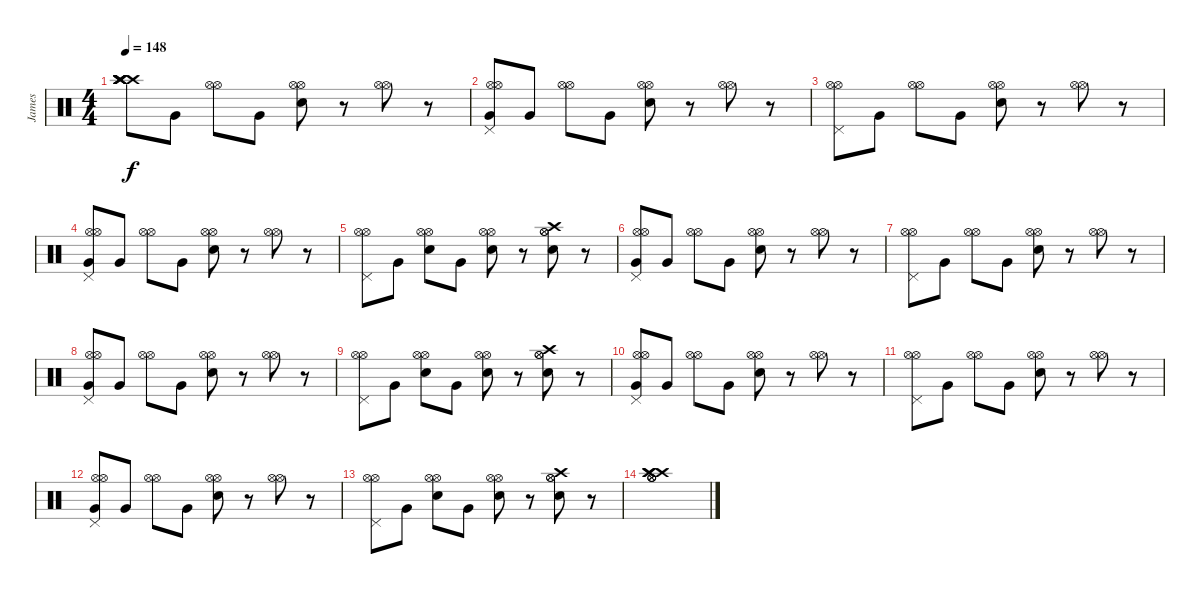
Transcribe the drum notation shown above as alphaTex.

\track ("James" "James") {instrument percussion}
\staff {score}
\articulation defaults
\ts (4 4)
\tempo 148
\clef neutral
\ks c
("Crash high (hit)" "Crash high (hit)" "Crash high (hit)" "Crash high (hit)" "Crash high (hit)" "Crash high (hit)").8{dy f} "Very Low Tom (hit)".8 ("Hi-Hat (open)" "Hi-Hat (open)").8 "Very Low Tom (hit)".8 ("Hi-Hat (open)" "Electric Snare (hit)" "Hi-Hat (open)").8 r.8 ("Hi-Hat (open)" "Hi-Hat (open)").8 r.8 |
("Hi-Hat (open)" "Pedal Hi-Hat (hit)" "Very Low Tom (hit)" "Hi-Hat (open)").8 "Very Low Tom (hit)".8 ("Hi-Hat (open)" "Hi-Hat (open)").8 "Very Low Tom (hit)".8 ("Hi-Hat (open)" "Electric Snare (hit)" "Hi-Hat (open)").8 r.8 ("Hi-Hat (open)" "Hi-Hat (open)").8 r.8 |
("Hi-Hat (open)" "Pedal Hi-Hat (hit)" "Hi-Hat (open)").8 "Very Low Tom (hit)".8 ("Hi-Hat (open)" "Hi-Hat (open)").8 "Very Low Tom (hit)".8 ("Hi-Hat (open)" "Electric Snare (hit)" "Hi-Hat (open)").8 r.8 ("Hi-Hat (open)" "Hi-Hat (open)").8 r.8 |
("Hi-Hat (open)" "Pedal Hi-Hat (hit)" "Very Low Tom (hit)" "Hi-Hat (open)").8 "Very Low Tom (hit)".8 ("Hi-Hat (open)" "Hi-Hat (open)").8 "Very Low Tom (hit)".8 ("Hi-Hat (open)" "Electric Snare (hit)" "Hi-Hat (open)").8 r.8 ("Hi-Hat (open)" "Hi-Hat (open)").8 r.8 |
("Hi-Hat (open)" "Pedal Hi-Hat (hit)" "Hi-Hat (open)").8 "Very Low Tom (hit)".8 ("Hi-Hat (open)" "Electric Snare (hit)" "Hi-Hat (open)").8 "Very Low Tom (hit)".8 ("Hi-Hat (open)" "Electric Snare (hit)" "Hi-Hat (open)").8 r.8 ("Hi-Hat (open)" "Crash high (hit)" "Electric Snare (hit)" "Hi-Hat (open)").8 r.8 |
("Hi-Hat (open)" "Pedal Hi-Hat (hit)" "Very Low Tom (hit)" "Hi-Hat (open)").8 "Very Low Tom (hit)".8 ("Hi-Hat (open)" "Hi-Hat (open)").8 "Very Low Tom (hit)".8 ("Hi-Hat (open)" "Electric Snare (hit)" "Hi-Hat (open)").8 r.8 ("Hi-Hat (open)" "Hi-Hat (open)").8 r.8 |
("Hi-Hat (open)" "Pedal Hi-Hat (hit)" "Hi-Hat (open)").8 "Very Low Tom (hit)".8 ("Hi-Hat (open)" "Hi-Hat (open)").8 "Very Low Tom (hit)".8 ("Hi-Hat (open)" "Electric Snare (hit)" "Hi-Hat (open)").8 r.8 ("Hi-Hat (open)" "Hi-Hat (open)").8 r.8 |
("Hi-Hat (open)" "Pedal Hi-Hat (hit)" "Very Low Tom (hit)" "Hi-Hat (open)").8 "Very Low Tom (hit)".8 ("Hi-Hat (open)" "Hi-Hat (open)").8 "Very Low Tom (hit)".8 ("Hi-Hat (open)" "Electric Snare (hit)" "Hi-Hat (open)").8 r.8 ("Hi-Hat (open)" "Hi-Hat (open)").8 r.8 |
("Hi-Hat (open)" "Pedal Hi-Hat (hit)" "Hi-Hat (open)").8 "Very Low Tom (hit)".8 ("Hi-Hat (open)" "Electric Snare (hit)" "Hi-Hat (open)").8 "Very Low Tom (hit)".8 ("Hi-Hat (open)" "Electric Snare (hit)" "Hi-Hat (open)").8 r.8 ("Hi-Hat (open)" "Crash high (hit)" "Electric Snare (hit)" "Hi-Hat (open)").8 r.8 |
("Hi-Hat (open)" "Pedal Hi-Hat (hit)" "Very Low Tom (hit)" "Hi-Hat (open)").8 "Very Low Tom (hit)".8 ("Hi-Hat (open)" "Hi-Hat (open)").8 "Very Low Tom (hit)".8 ("Hi-Hat (open)" "Electric Snare (hit)" "Hi-Hat (open)").8 r.8 ("Hi-Hat (open)" "Hi-Hat (open)").8 r.8 |
("Hi-Hat (open)" "Pedal Hi-Hat (hit)" "Hi-Hat (open)").8 "Very Low Tom (hit)".8 ("Hi-Hat (open)" "Hi-Hat (open)").8 "Very Low Tom (hit)".8 ("Hi-Hat (open)" "Electric Snare (hit)" "Hi-Hat (open)").8 r.8 ("Hi-Hat (open)" "Hi-Hat (open)").8 r.8 |
("Hi-Hat (open)" "Pedal Hi-Hat (hit)" "Very Low Tom (hit)" "Hi-Hat (open)").8 "Very Low Tom (hit)".8 ("Hi-Hat (open)" "Hi-Hat (open)").8 "Very Low Tom (hit)".8 ("Hi-Hat (open)" "Electric Snare (hit)" "Hi-Hat (open)").8 r.8 ("Hi-Hat (open)" "Hi-Hat (open)").8 r.8 |
("Hi-Hat (open)" "Pedal Hi-Hat (hit)" "Hi-Hat (open)").8 "Very Low Tom (hit)".8 ("Hi-Hat (open)" "Electric Snare (hit)" "Hi-Hat (open)").8 "Very Low Tom (hit)".8 ("Hi-Hat (open)" "Electric Snare (hit)" "Hi-Hat (open)").8 r.8 ("Hi-Hat (open)" "Crash high (hit)" "Electric Snare (hit)" "Hi-Hat (open)").8 r.8 |
("Crash high (hit)" "Crash high (hit)" "Hi-Hat (open)" "Hi-Hat (open)" "Crash high (hit)" "Hi-Hat (open)").1
